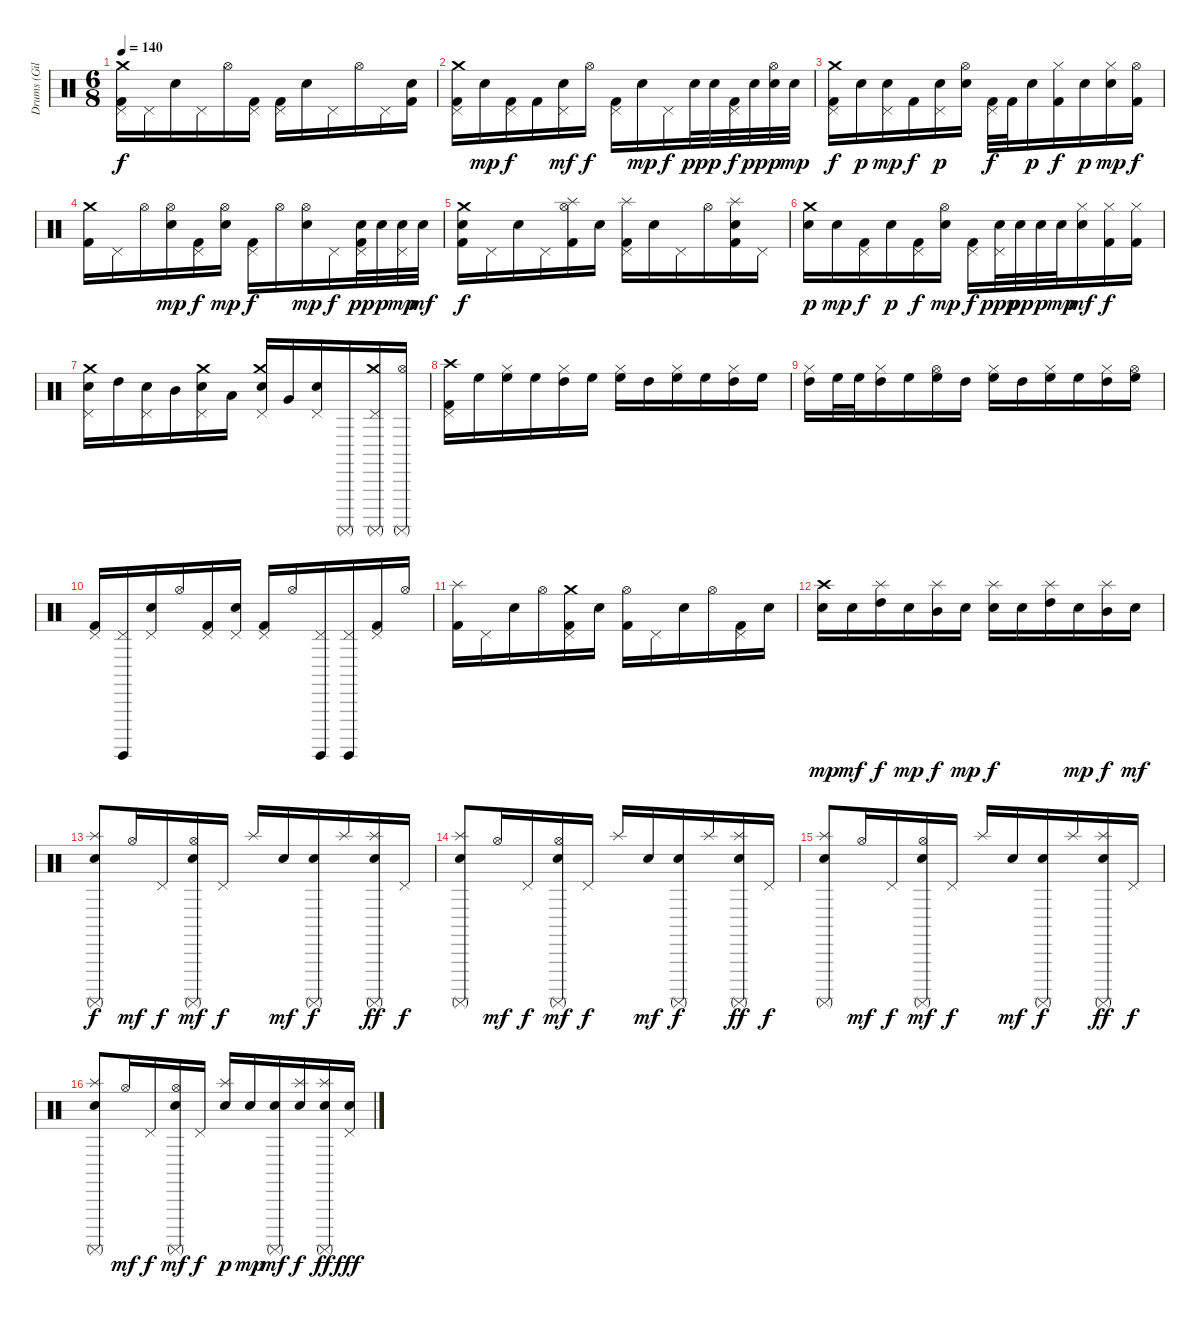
\track ("Drums (Giles)" "Drums (Gil") {instrument percussion}
\staff {score}
\articulation defaults
\ts (6 8)
\tempo 140
\clef neutral
\ks c
("Crash medium (hit)" "Pedal Hi-Hat (hit)" "Kick (hit) 2").16{dy f} "Pedal Hi-Hat (hit)".16 "Electric Snare (hit)".16 "Pedal Hi-Hat (hit)".16 "Hi-Hat (open)".16 ("Pedal Hi-Hat (hit)" "Kick (hit) 2").16 ("Pedal Hi-Hat (hit)" "Kick (hit) 2").16 "Electric Snare (hit)".16 "Pedal Hi-Hat (hit)".16 "Hi-Hat (open)".16 "Pedal Hi-Hat (hit)".16 ("Electric Snare (hit)" "Kick (hit) 2").16 |
("Crash medium (hit)" "Pedal Hi-Hat (hit)" "Kick (hit) 2").16 "Electric Snare (hit)".16{dy mp} ("Pedal Hi-Hat (hit)" "Kick (hit) 2").16{dy f} "Kick (hit) 2".16 ("Pedal Hi-Hat (hit)" "Electric Snare (hit)").16{dy mf} "Hi-Hat (open)".16{dy f} ("Pedal Hi-Hat (hit)" "Kick (hit) 2").16 "Electric Snare (hit)".16{dy mp} "Pedal Hi-Hat (hit)".16{dy f} "Electric Snare (hit)".32{dy pp} "Electric Snare (hit)".32{dy p} ("Pedal Hi-Hat (hit)" "Kick (hit) 2").32{dy f} "Electric Snare (hit)".32{dy pp} ("Hi-Hat (open)" "Electric Snare (hit)").32{dy p} "Electric Snare (hit)".32{dy mp} |
("Crash medium (hit)" "Pedal Hi-Hat (hit)" "Kick (hit) 2").16{dy f} "Electric Snare (hit)".16{dy p} ("Pedal Hi-Hat (hit)" "Electric Snare (hit)").16{dy mp} "Kick (hit) 2".16{dy f} ("Pedal Hi-Hat (hit)" "Electric Snare (hit)").16{dy p} ("Hi-Hat (open)" "Electric Snare (hit)").16 ("Pedal Hi-Hat (hit)" "Kick (hit) 2").32{dy f} "Kick (hit) 2".32 "Electric Snare (hit)".16{dy p} ("Hi-Hat (closed)" "Kick (hit) 2").16{dy f} "Electric Snare (hit)".16{dy p} ("Hi-Hat (closed)" "Electric Snare (hit)").16{dy mp} ("Hi-Hat (open)" "Kick (hit) 2").16{dy f} |
("Crash medium (hit)" "Kick (hit) 2").16 "Pedal Hi-Hat (hit)".16 "Hi-Hat (open)".16 ("Hi-Hat (open)" "Electric Snare (hit)").16{dy mp} ("Pedal Hi-Hat (hit)" "Kick (hit) 2").16{dy f} ("Hi-Hat (open)" "Electric Snare (hit)").16{dy mp} ("Pedal Hi-Hat (hit)" "Kick (hit) 2").16{dy f} "Hi-Hat (open)".16 ("Hi-Hat (open)" "Electric Snare (hit)").16{dy mp} "Pedal Hi-Hat (hit)".16{dy f} ("Pedal Hi-Hat (hit)" "Electric Snare (hit)" "Kick (hit) 2").32{dy pp} "Electric Snare (hit)".32{dy p} ("Pedal Hi-Hat (hit)" "Electric Snare (hit)").32{dy mp} "Electric Snare (hit)".32{dy mf} |
("Crash medium (hit)" "Electric Snare (hit)" "Kick (hit) 2").16{dy f} "Pedal Hi-Hat (hit)".16 "Electric Snare (hit)".16 "Pedal Hi-Hat (hit)".16 ("Splash (hit)" "Hi-Hat (open)" "Kick (hit) 2").16 "Electric Snare (hit)".16 ("Splash (hit)" "Pedal Hi-Hat (hit)" "Kick (hit) 2").16 "Electric Snare (hit)".16 "Pedal Hi-Hat (hit)".16 "Hi-Hat (open)".16 ("Splash (hit)" "Electric Snare (hit)" "Kick (hit) 2").16 "Pedal Hi-Hat (hit)".16 |
("Crash medium (hit)" "Electric Snare (hit)").16{dy p} "Electric Snare (hit)".16{dy mp} ("Pedal Hi-Hat (hit)" "Kick (hit) 2").16{dy f} "Electric Snare (hit)".16{dy p} ("Pedal Hi-Hat (hit)" "Kick (hit) 2").16{dy f} ("Hi-Hat (open)" "Electric Snare (hit)").16{dy mp} ("Pedal Hi-Hat (hit)" "Kick (hit) 2").16{dy f} ("Pedal Hi-Hat (hit)" "Electric Snare (hit)").32{dy ppp} "Electric Snare (hit)".32{dy pp} "Electric Snare (hit)".32{dy p} "Electric Snare (hit)".32{dy mp} ("Hi-Hat (closed)" "Electric Snare (hit)").16{dy mf} ("Hi-Hat (closed)" "Kick (hit) 2").16{dy f} ("Hi-Hat (closed)" "Kick (hit) 2").16 |
("Crash medium (hit)" "Pedal Hi-Hat (hit)" "Electric Snare (hit)").16 "High Tom (hit)".16 ("Pedal Hi-Hat (hit)" "Electric Snare (hit)").16 "Mid Tom (hit)".16 ("Crash medium (hit)" "Pedal Hi-Hat (hit)" "Electric Snare (hit)").16 "Low Tom (hit)".16 ("Crash medium (hit)" "Pedal Hi-Hat (hit)" "Electric Snare (hit)").16 "Very Low Tom (hit)".16 ("Pedal Hi-Hat (hit)" "Electric Snare (hit)").16 "Surdo (mute)".16 ("Crash medium (hit)" "Pedal Hi-Hat (hit)" "Surdo (mute)").16 ("Hi-Hat (open)" "Surdo (mute)").16 |
("Crash high (hit)" "Pedal Hi-Hat (hit)" "Kick (hit) 2").16 "High Floor Tom (hit)".16 ("Hi-Hat (closed)" "High Floor Tom (hit)").16 "High Floor Tom (hit)".16 ("Hi-Hat (closed)" "High Tom (hit)").16 "High Floor Tom (hit)".16 ("Hi-Hat (closed)" "High Floor Tom (hit)").16 "High Tom (hit)".16 ("Hi-Hat (closed)" "High Floor Tom (hit)").16 "High Floor Tom (hit)".16 ("Hi-Hat (closed)" "High Tom (hit)").16 "High Floor Tom (hit)".16 |
("Hi-Hat (closed)" "High Tom (hit)").16 "High Floor Tom (hit)".32 "High Floor Tom (hit)".32 ("Hi-Hat (closed)" "High Tom (hit)").16 "High Floor Tom (hit)".16 ("Hi-Hat (open)" "High Floor Tom (hit)").16 "High Tom (hit)".16 ("Hi-Hat (closed)" "High Floor Tom (hit)").16 "High Tom (hit)".16 ("Hi-Hat (closed)" "High Floor Tom (hit)").16 "High Floor Tom (hit)".16 ("Hi-Hat (closed)" "High Tom (hit)").16 ("Hi-Hat (open)" "High Floor Tom (hit)").16 |
("Pedal Hi-Hat (hit)" "Kick (hit) 2").16 ("Pedal Hi-Hat (hit)" "Surdo (hit)").16 ("Pedal Hi-Hat (hit)" "Electric Snare (hit)").16 "Hi-Hat (open)".16 ("Pedal Hi-Hat (hit)" "Kick (hit) 2").16 ("Pedal Hi-Hat (hit)" "Electric Snare (hit)").16 ("Pedal Hi-Hat (hit)" "Kick (hit) 2").16 "Hi-Hat (open)".16 ("Pedal Hi-Hat (hit)" "Surdo (hit)").16 ("Pedal Hi-Hat (hit)" "Surdo (hit)").16 ("Pedal Hi-Hat (hit)" "Kick (hit) 2").16 "Hi-Hat (open)".16 |
("Splash (hit)" "Kick (hit) 2").16 "Pedal Hi-Hat (hit)".16 "Electric Snare (hit)".16 "Hi-Hat (open)".16 ("Crash medium (hit)" "Pedal Hi-Hat (hit)" "Kick (hit) 2").16 "Electric Snare (hit)".16 ("Hi-Hat (open)" "Kick (hit) 2").16 "Pedal Hi-Hat (hit)".16 "Electric Snare (hit)".16 "Hi-Hat (open)".16 ("Pedal Hi-Hat (hit)" "Kick (hit) 2").16 "Electric Snare (hit)".16 |
("Crash high (hit)" "Electric Snare (hit)").16{dy mp} "Electric Snare (hit)".16{dy mf} ("Splash (hit)" "High Tom (hit)").16{dy f} "Electric Snare (hit)".16{dy mp} ("Splash (hit)" "Mid Tom (hit)").16{dy f} "Electric Snare (hit)".16{dy mp} ("Splash (hit)" "Electric Snare (hit)").16{dy f} "Electric Snare (hit)".16 ("Splash (hit)" "High Tom (hit)").16 "Electric Snare (hit)".16{dy mp} ("Splash (hit)" "Mid Tom (hit)").16{dy f} "Electric Snare (hit)".16{dy mf} |
("Splash (hit)" "Electric Snare (hit)" "Surdo (mute)").8{dy f} "Hi-Hat (open)".16{dy mf} "Pedal Hi-Hat (hit)".16{dy f} ("Hi-Hat (open)" "Electric Snare (hit)" "Surdo (mute)").16{dy mf} "Pedal Hi-Hat (hit)".16{dy f} "Splash (hit)".16 "Electric Snare (hit)".16{dy mf} ("Electric Snare (hit)" "Surdo (mute)").16{dy f} "Splash (hit)".16 ("Splash (hit)" "Electric Snare (hit)" "Surdo (mute)").16{dy ff} "Pedal Hi-Hat (hit)".16{dy f} |
("Splash (hit)" "Electric Snare (hit)" "Surdo (mute)").8 "Hi-Hat (open)".16{dy mf} "Pedal Hi-Hat (hit)".16{dy f} ("Hi-Hat (open)" "Electric Snare (hit)" "Surdo (mute)").16{dy mf} "Pedal Hi-Hat (hit)".16{dy f} "Splash (hit)".16 "Electric Snare (hit)".16{dy mf} ("Electric Snare (hit)" "Surdo (mute)").16{dy f} "Splash (hit)".16 ("Splash (hit)" "Electric Snare (hit)" "Surdo (mute)").16{dy ff} "Pedal Hi-Hat (hit)".16{dy f} |
("Splash (hit)" "Electric Snare (hit)" "Surdo (mute)").8 "Hi-Hat (open)".16{dy mf} "Pedal Hi-Hat (hit)".16{dy f} ("Hi-Hat (open)" "Electric Snare (hit)" "Surdo (mute)").16{dy mf} "Pedal Hi-Hat (hit)".16{dy f} "Splash (hit)".16 "Electric Snare (hit)".16{dy mf} ("Electric Snare (hit)" "Surdo (mute)").16{dy f} "Splash (hit)".16 ("Splash (hit)" "Electric Snare (hit)" "Surdo (mute)").16{dy ff} "Pedal Hi-Hat (hit)".16{dy f} |
("Splash (hit)" "Electric Snare (hit)" "Surdo (mute)").8 "Hi-Hat (open)".16{dy mf} "Pedal Hi-Hat (hit)".16{dy f} ("Hi-Hat (open)" "Electric Snare (hit)" "Surdo (mute)").16{dy mf} "Pedal Hi-Hat (hit)".16{dy f} ("Splash (hit)" "Electric Snare (hit)").16{dy p} "Electric Snare (hit)".16{dy mp} ("Electric Snare (hit)" "Surdo (mute)").16{dy mf} ("Splash (hit)" "Electric Snare (hit)").16{dy f} ("Splash (hit)" "Electric Snare (hit)" "Surdo (mute)").16{dy ff} ("Pedal Hi-Hat (hit)" "Electric Snare (hit)").16{dy fff}
